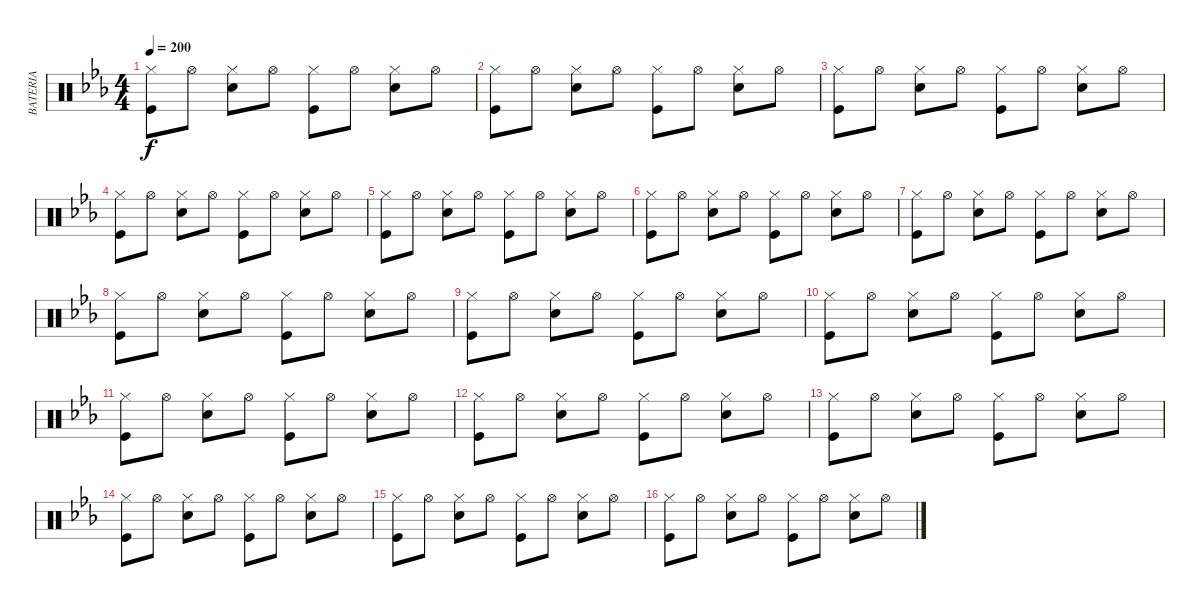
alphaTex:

\track ("BATERIA" "BATERIA") {instrument percussion}
\staff {score}
\articulation defaults
\ts (4 4)
\tempo 200
\clef neutral
\ks cminor
("Kick (hit)" "Hi-Hat (closed)").8{dy f} "Hi-Hat (open)".8 ("Hi-Hat (closed)" "Snare (hit) 2").8 "Hi-Hat (open)".8 ("Kick (hit)" "Hi-Hat (closed)").8 "Hi-Hat (open)".8 ("Hi-Hat (closed)" "Snare (hit) 2").8 "Hi-Hat (open)".8 |
("Kick (hit)" "Hi-Hat (closed)").8 "Hi-Hat (open)".8 ("Hi-Hat (closed)" "Snare (hit) 2").8 "Hi-Hat (open)".8 ("Kick (hit)" "Hi-Hat (closed)").8 "Hi-Hat (open)".8 ("Hi-Hat (closed)" "Snare (hit) 2").8 "Hi-Hat (open)".8 |
("Kick (hit)" "Hi-Hat (closed)").8 "Hi-Hat (open)".8 ("Hi-Hat (closed)" "Snare (hit) 2").8 "Hi-Hat (open)".8 ("Kick (hit)" "Hi-Hat (closed)").8 "Hi-Hat (open)".8 ("Hi-Hat (closed)" "Snare (hit) 2").8 "Hi-Hat (open)".8 |
("Kick (hit)" "Hi-Hat (closed)").8 "Hi-Hat (open)".8 ("Hi-Hat (closed)" "Snare (hit) 2").8 "Hi-Hat (open)".8 ("Kick (hit)" "Hi-Hat (closed)").8 "Hi-Hat (open)".8 ("Hi-Hat (closed)" "Snare (hit) 2").8 "Hi-Hat (open)".8 |
("Kick (hit)" "Hi-Hat (closed)").8 "Hi-Hat (open)".8 ("Hi-Hat (closed)" "Snare (hit) 2").8 "Hi-Hat (open)".8 ("Kick (hit)" "Hi-Hat (closed)").8 "Hi-Hat (open)".8 ("Hi-Hat (closed)" "Snare (hit) 2").8 "Hi-Hat (open)".8 |
("Kick (hit)" "Hi-Hat (closed)").8 "Hi-Hat (open)".8 ("Hi-Hat (closed)" "Snare (hit) 2").8 "Hi-Hat (open)".8 ("Kick (hit)" "Hi-Hat (closed)").8 "Hi-Hat (open)".8 ("Hi-Hat (closed)" "Snare (hit) 2").8 "Hi-Hat (open)".8 |
("Kick (hit)" "Hi-Hat (closed)").8 "Hi-Hat (open)".8 ("Hi-Hat (closed)" "Snare (hit) 2").8 "Hi-Hat (open)".8 ("Kick (hit)" "Hi-Hat (closed)").8 "Hi-Hat (open)".8 ("Hi-Hat (closed)" "Snare (hit) 2").8 "Hi-Hat (open)".8 |
("Kick (hit)" "Hi-Hat (closed)").8 "Hi-Hat (open)".8 ("Hi-Hat (closed)" "Snare (hit) 2").8 "Hi-Hat (open)".8 ("Kick (hit)" "Hi-Hat (closed)").8 "Hi-Hat (open)".8 ("Hi-Hat (closed)" "Snare (hit) 2").8 "Hi-Hat (open)".8 |
("Kick (hit)" "Hi-Hat (closed)").8 "Hi-Hat (open)".8 ("Hi-Hat (closed)" "Snare (hit) 2").8 "Hi-Hat (open)".8 ("Kick (hit)" "Hi-Hat (closed)").8 "Hi-Hat (open)".8 ("Hi-Hat (closed)" "Snare (hit) 2").8 "Hi-Hat (open)".8 |
("Kick (hit)" "Hi-Hat (closed)").8 "Hi-Hat (open)".8 ("Hi-Hat (closed)" "Snare (hit) 2").8 "Hi-Hat (open)".8 ("Kick (hit)" "Hi-Hat (closed)").8 "Hi-Hat (open)".8 ("Hi-Hat (closed)" "Snare (hit) 2").8 "Hi-Hat (open)".8 |
("Kick (hit)" "Hi-Hat (closed)").8 "Hi-Hat (open)".8 ("Hi-Hat (closed)" "Snare (hit) 2").8 "Hi-Hat (open)".8 ("Kick (hit)" "Hi-Hat (closed)").8 "Hi-Hat (open)".8 ("Hi-Hat (closed)" "Snare (hit) 2").8 "Hi-Hat (open)".8 |
("Kick (hit)" "Hi-Hat (closed)").8 "Hi-Hat (open)".8 ("Hi-Hat (closed)" "Snare (hit) 2").8 "Hi-Hat (open)".8 ("Kick (hit)" "Hi-Hat (closed)").8 "Hi-Hat (open)".8 ("Hi-Hat (closed)" "Snare (hit) 2").8 "Hi-Hat (open)".8 |
("Kick (hit)" "Hi-Hat (closed)").8 "Hi-Hat (open)".8 ("Hi-Hat (closed)" "Snare (hit) 2").8 "Hi-Hat (open)".8 ("Kick (hit)" "Hi-Hat (closed)").8 "Hi-Hat (open)".8 ("Hi-Hat (closed)" "Snare (hit) 2").8 "Hi-Hat (open)".8 |
("Kick (hit)" "Hi-Hat (closed)").8 "Hi-Hat (open)".8 ("Hi-Hat (closed)" "Snare (hit) 2").8 "Hi-Hat (open)".8 ("Kick (hit)" "Hi-Hat (closed)").8 "Hi-Hat (open)".8 ("Hi-Hat (closed)" "Snare (hit) 2").8 "Hi-Hat (open)".8 |
("Kick (hit)" "Hi-Hat (closed)").8 "Hi-Hat (open)".8 ("Hi-Hat (closed)" "Snare (hit) 2").8 "Hi-Hat (open)".8 ("Kick (hit)" "Hi-Hat (closed)").8 "Hi-Hat (open)".8 ("Hi-Hat (closed)" "Snare (hit) 2").8 "Hi-Hat (open)".8 |
("Kick (hit)" "Hi-Hat (closed)").8 "Hi-Hat (open)".8 ("Hi-Hat (closed)" "Snare (hit) 2").8 "Hi-Hat (open)".8 ("Kick (hit)" "Hi-Hat (closed)").8 "Hi-Hat (open)".8 ("Hi-Hat (closed)" "Snare (hit) 2").8 "Hi-Hat (open)".8
